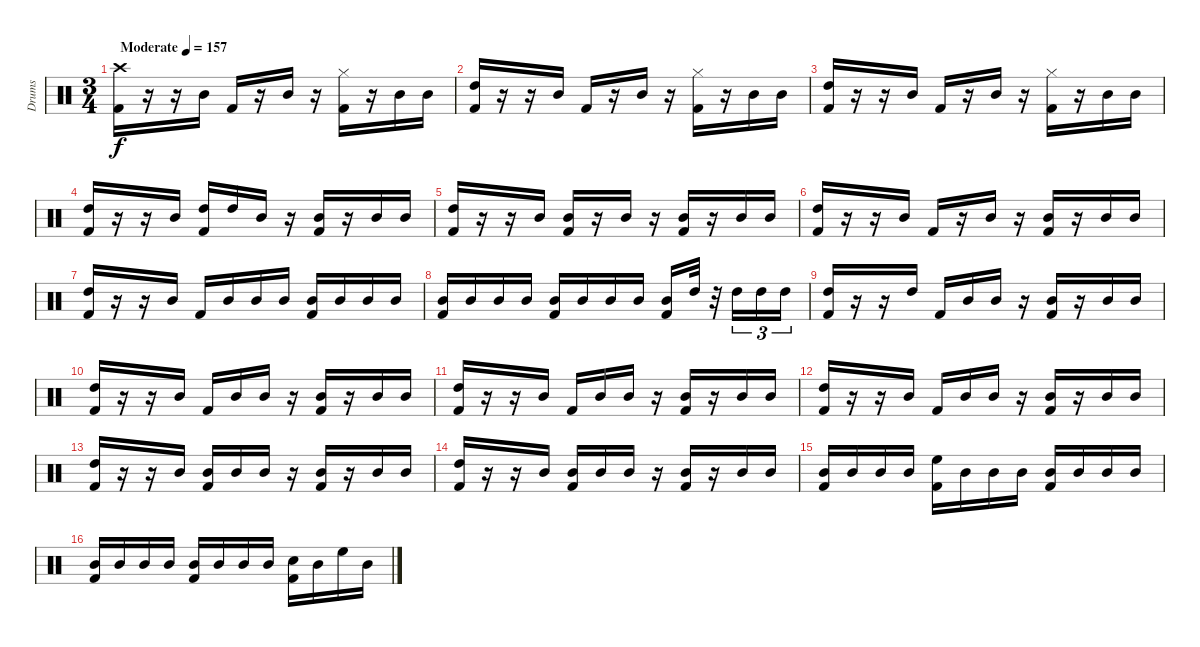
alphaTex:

\track ("Drums" "Drums") {instrument percussion}
\staff {score}
\articulation defaults
\ts (3 4)
\tempo (157 "Moderate")
\clef neutral
\ks c
("Crash high (hit)" "Kick (hit) 2").16{dy f} r.16 r.16 "Mid Tom (hit)".16 "Kick (hit) 2".16 r.16 "Mid Tom (hit)".16 r.16 ("Hi-Hat (closed)" "Kick (hit) 2").16 r.16 "Mid Tom (hit)".16 "Mid Tom (hit)".16 |
("High Tom (hit)" "Kick (hit) 2").16 r.16 r.16 "Mid Tom (hit)".16 "Kick (hit) 2".16 r.16 "Mid Tom (hit)".16 r.16 ("Hi-Hat (closed)" "Kick (hit) 2").16 r.16 "Mid Tom (hit)".16 "Mid Tom (hit)".16 |
("High Tom (hit)" "Kick (hit) 2").16 r.16 r.16 "Mid Tom (hit)".16 "Kick (hit) 2".16 r.16 "Mid Tom (hit)".16 r.16 ("Hi-Hat (closed)" "Kick (hit) 2").16 r.16 "Mid Tom (hit)".16 "Mid Tom (hit)".16 |
("High Tom (hit)" "Kick (hit) 2").16 r.16 r.16 "Mid Tom (hit)".16 ("High Tom (hit)" "Kick (hit) 2").16 "High Tom (hit)".16 "Mid Tom (hit)".16 r.16 ("Mid Tom (hit)" "Kick (hit) 2").16 r.16 "Mid Tom (hit)".16 "Mid Tom (hit)".16 |
("High Tom (hit)" "Kick (hit) 2").16 r.16 r.16 "Mid Tom (hit)".16 ("Mid Tom (hit)" "Kick (hit) 2").16 r.16 "Mid Tom (hit)".16 r.16 ("Mid Tom (hit)" "Kick (hit) 2").16 r.16 "Mid Tom (hit)".16 "Mid Tom (hit)".16 |
("High Tom (hit)" "Kick (hit) 2").16 r.16 r.16 "Mid Tom (hit)".16 "Kick (hit) 2".16 r.16 "Mid Tom (hit)".16 r.16 ("Mid Tom (hit)" "Kick (hit) 2").16 r.16 "Mid Tom (hit)".16 "Mid Tom (hit)".16 |
("High Tom (hit)" "Kick (hit) 2").16 r.16 r.16 "Mid Tom (hit)".16 "Kick (hit) 2".16 "Mid Tom (hit)".16 "Mid Tom (hit)".16 "Mid Tom (hit)".16 ("Mid Tom (hit)" "Kick (hit) 2").16 "Mid Tom (hit)".16 "Mid Tom (hit)".16 "Mid Tom (hit)".16 |
("Mid Tom (hit)" "Kick (hit) 2").16 "Mid Tom (hit)".16 "Mid Tom (hit)".16 "Mid Tom (hit)".16 ("Mid Tom (hit)" "Kick (hit) 2").16 "Mid Tom (hit)".16 "Mid Tom (hit)".16 "Mid Tom (hit)".16 ("Mid Tom (hit)" "Kick (hit) 2").16 "High Tom (hit)".32 r.32 "High Tom (hit)".16{tu (3 2)} "High Tom (hit)".16{tu (3 2)} "High Tom (hit)".16{tu (3 2)} |
("High Tom (hit)" "Kick (hit) 2").16 r.16 r.16 "High Tom (hit)".16 "Kick (hit) 2".16 "Mid Tom (hit)".16 "Mid Tom (hit)".16 r.16 ("Mid Tom (hit)" "Kick (hit) 2").16 r.16 "Mid Tom (hit)".16 "Mid Tom (hit)".16 |
("High Tom (hit)" "Kick (hit) 2").16 r.16 r.16 "Mid Tom (hit)".16 "Kick (hit) 2".16 "Mid Tom (hit)".16 "Mid Tom (hit)".16 r.16 ("Mid Tom (hit)" "Kick (hit) 2").16 r.16 "Mid Tom (hit)".16 "Mid Tom (hit)".16 |
("High Tom (hit)" "Kick (hit) 2").16 r.16 r.16 "Mid Tom (hit)".16 "Kick (hit) 2".16 "Mid Tom (hit)".16 "Mid Tom (hit)".16 r.16 ("Mid Tom (hit)" "Kick (hit) 2").16 r.16 "Mid Tom (hit)".16 "Mid Tom (hit)".16 |
("High Tom (hit)" "Kick (hit) 2").16 r.16 r.16 "Mid Tom (hit)".16 "Kick (hit) 2".16 "Mid Tom (hit)".16 "Mid Tom (hit)".16 r.16 ("Mid Tom (hit)" "Kick (hit) 2").16 r.16 "Mid Tom (hit)".16 "Mid Tom (hit)".16 |
("High Tom (hit)" "Kick (hit) 2").16 r.16 r.16 "Mid Tom (hit)".16 ("Mid Tom (hit)" "Kick (hit) 2").16 "Mid Tom (hit)".16 "Mid Tom (hit)".16 r.16 ("Mid Tom (hit)" "Kick (hit) 2").16 r.16 "Mid Tom (hit)".16 "Mid Tom (hit)".16 |
("High Tom (hit)" "Kick (hit) 2").16 r.16 r.16 "Mid Tom (hit)".16 ("Mid Tom (hit)" "Kick (hit) 2").16 "Mid Tom (hit)".16 "Mid Tom (hit)".16 r.16 ("Mid Tom (hit)" "Kick (hit) 2").16 r.16 "Mid Tom (hit)".16 "Mid Tom (hit)".16 |
("Mid Tom (hit)" "Kick (hit) 2").16 "Mid Tom (hit)".16 "Mid Tom (hit)".16 "Mid Tom (hit)".16 ("High Floor Tom (hit)" "Kick (hit) 2").16 "Mid Tom (hit)".16 "Mid Tom (hit)".16 "Mid Tom (hit)".16 ("Mid Tom (hit)" "Kick (hit) 2").16 "Mid Tom (hit)".16 "Mid Tom (hit)".16 "Mid Tom (hit)".16 |
("Mid Tom (hit)" "Kick (hit) 2").16 "Mid Tom (hit)".16 "Mid Tom (hit)".16 "Mid Tom (hit)".16 ("Mid Tom (hit)" "Kick (hit) 2").16 "Mid Tom (hit)".16 "Mid Tom (hit)".16 "Mid Tom (hit)".16 ("Snare (hit) 2" "Kick (hit) 2").16 "Mid Tom (hit)".16 "High Floor Tom (hit)".16 "Mid Tom (hit)".16
